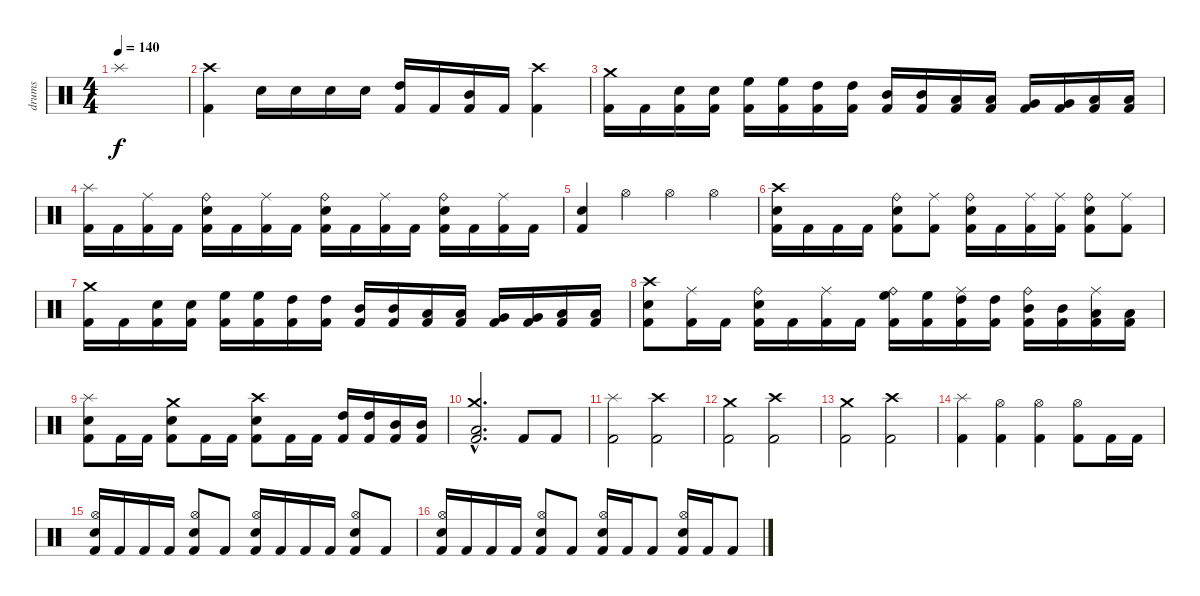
\track ("drums" "drums") {instrument percussion}
\staff {score}
\articulation defaults
\ts (4 4)
\tempo 140
\clef neutral
\ks c "Splash (hit)".1{dy f}
|
("Crash high (hit)" "Kick (hit) 2").4 "Snare (hit) 2".16 "Snare (hit) 2".16 "Snare (hit) 2".16 "Snare (hit) 2".16 ("High Tom (hit)" "Kick (hit) 2").16 "Kick (hit) 2".16 ("Mid Tom (hit)" "Kick (hit) 2").16 "Kick (hit) 2".16 ("Crash high (hit)" "Kick (hit) 2").4 |
("Crash medium (hit)" "Kick (hit) 2").16 "Kick (hit) 2".16 ("Snare (hit) 2" "Kick (hit) 2").16 ("Snare (hit) 2" "Kick (hit) 2").16 ("High Floor Tom (hit)" "Kick (hit) 2").16 ("High Floor Tom (hit)" "Kick (hit) 2").16 ("High Tom (hit)" "Kick (hit) 2").16 ("High Tom (hit)" "Kick (hit) 2").16 ("Mid Tom (hit)" "Kick (hit) 2").16 ("Mid Tom (hit)" "Kick (hit) 2").16 ("Low Tom (hit)" "Kick (hit) 2").16 ("Low Tom (hit)" "Kick (hit) 2").16 ("Very Low Tom (hit)" "Kick (hit) 2").16 ("Very Low Tom (hit)" "Kick (hit) 2").16 ("Low Floor Tom (hit)" "Kick (hit) 2").16 ("Low Floor Tom (hit)" "Kick (hit) 2").16 |
("Splash (hit)" "Kick (hit) 2").16 "Kick (hit) 2".16 ("Ride (middle)" "Kick (hit) 2").16 "Kick (hit) 2".16 ("Ride (bell)" "Snare (hit) 2" "Kick (hit) 2").16 "Kick (hit) 2".16 ("Ride (middle)" "Kick (hit) 2").16 "Kick (hit) 2".16 ("Ride (bell)" "Snare (hit) 2" "Kick (hit) 2").16 "Kick (hit) 2".16 ("Ride (middle)" "Kick (hit) 2").16 "Kick (hit) 2".16 ("Ride (bell)" "Snare (hit) 2" "Kick (hit) 2").16 "Kick (hit) 2".16 ("Ride (middle)" "Kick (hit) 2").16 "Kick (hit) 2".16 |
("Snare (hit) 2" "Kick (hit) 2").4 "Hi-Hat (open)".4 "Hi-Hat (open)".4 "Hi-Hat (open)".4 |
("Crash high (hit)" "Electric Snare (hit)" "Kick (hit) 2").16 "Kick (hit) 2".16 "Kick (hit) 2".16 "Kick (hit) 2".16 ("Ride (bell)" "Electric Snare (hit)" "Kick (hit) 2").8 ("Ride (middle)" "Kick (hit) 2").8 ("Ride (bell)" "Electric Snare (hit)" "Kick (hit) 2").16 "Kick (hit) 2".16 ("Ride (middle)" "Kick (hit) 2").16 ("Ride (middle)" "Kick (hit) 2").16 ("Ride (bell)" "Electric Snare (hit)" "Kick (hit) 2").8 ("Ride (middle)" "Kick (hit) 2").8 |
("Crash medium (hit)" "Kick (hit) 2").16 "Kick (hit) 2".16 ("Snare (hit) 2" "Kick (hit) 2").16 ("Snare (hit) 2" "Kick (hit) 2").16 ("High Floor Tom (hit)" "Kick (hit) 2").16 ("High Floor Tom (hit)" "Kick (hit) 2").16 ("High Tom (hit)" "Kick (hit) 2").16 ("High Tom (hit)" "Kick (hit) 2").16 ("Mid Tom (hit)" "Kick (hit) 2").16 ("Mid Tom (hit)" "Kick (hit) 2").16 ("Low Tom (hit)" "Kick (hit) 2").16 ("Low Tom (hit)" "Kick (hit) 2").16 ("Very Low Tom (hit)" "Kick (hit) 2").16 ("Very Low Tom (hit)" "Kick (hit) 2").16 ("Low Floor Tom (hit)" "Kick (hit) 2").16 ("Low Floor Tom (hit)" "Kick (hit) 2").16 |
("Crash high (hit)" "Snare (hit) 2" "Kick (hit) 2").8 ("Ride (middle)" "Kick (hit) 2").16 "Kick (hit) 2".16 ("Ride (bell)" "Snare (hit) 2" "Kick (hit) 2").16 "Kick (hit) 2".16 ("Ride (middle)" "Kick (hit) 2").16 "Kick (hit) 2".16 ("Ride (bell)" "High Floor Tom (hit)" "Kick (hit) 2").16 ("High Floor Tom (hit)" "Kick (hit) 2").16 ("Ride (middle)" "High Tom (hit)" "Kick (hit) 2").16 ("High Tom (hit)" "Kick (hit) 2").16 ("Ride (bell)" "Mid Tom (hit)" "Kick (hit) 2").16 ("Mid Tom (hit)" "Kick (hit) 2").16 ("Ride (middle)" "Low Tom (hit)" "Kick (hit) 2").16 ("Low Tom (hit)" "Kick (hit) 2").16 |
("Splash (hit)" "Snare (hit) 2" "Kick (hit) 2").8 "Kick (hit) 2".16 "Kick (hit) 2".16 ("Crash medium (hit)" "Snare (hit) 2" "Kick (hit) 2").8 "Kick (hit) 2".16 "Kick (hit) 2".16 ("Crash high (hit)" "Snare (hit) 2" "Kick (hit) 2").8 "Kick (hit) 2".16 "Kick (hit) 2".16 ("High Tom (hit)" "Kick (hit) 2").16 ("High Tom (hit)" "Kick (hit) 2").16 ("Mid Tom (hit)" "Kick (hit) 2").16 ("Mid Tom (hit)" "Kick (hit) 2").16 |
("Crash medium (hit)"{hac} "Low Tom (hit)"{hac} "Kick (hit) 2"{hac}).2{d} "Kick (hit) 2".8 "Kick (hit) 2".8 |
("Splash (hit)" "Kick (hit) 2").2 ("Crash high (hit)" "Kick (hit) 2").2 |
("Crash medium (hit)" "Kick (hit) 2").2 ("Crash high (hit)" "Kick (hit) 2").2 |
("Crash medium (hit)" "Kick (hit) 2").2 ("Crash high (hit)" "Kick (hit) 2").2 |
("Splash (hit)" "Kick (hit) 2").4 ("Hi-Hat (open)" "Kick (hit) 2").4 ("Hi-Hat (open)" "Kick (hit) 2").4 ("Hi-Hat (open)" "Kick (hit) 2").8 "Kick (hit) 2".16 "Kick (hit) 2".16 |
("Hi-Hat (open)" "Electric Snare (hit)" "Kick (hit) 2").16 "Kick (hit) 2".16 "Kick (hit) 2".16 "Kick (hit) 2".16 ("Hi-Hat (open)" "Electric Snare (hit)" "Kick (hit) 2").8 "Kick (hit) 2".8 ("Hi-Hat (open)" "Electric Snare (hit)" "Kick (hit) 2").16 "Kick (hit) 2".16 "Kick (hit) 2".16 "Kick (hit) 2".16 ("Hi-Hat (open)" "Electric Snare (hit)" "Kick (hit) 2").8 "Kick (hit) 2".8 |
("Hi-Hat (open)" "Electric Snare (hit)" "Kick (hit) 2").16 "Kick (hit) 2".16 "Kick (hit) 2".16 "Kick (hit) 2".16 ("Hi-Hat (open)" "Electric Snare (hit)" "Kick (hit) 2").8 "Kick (hit) 2".8 ("Hi-Hat (open)" "Electric Snare (hit)" "Kick (hit) 2").16 "Kick (hit) 2".16 "Kick (hit) 2".8 ("Hi-Hat (open)" "Electric Snare (hit)" "Kick (hit) 2").16 "Kick (hit) 2".16 "Kick (hit) 2".8
